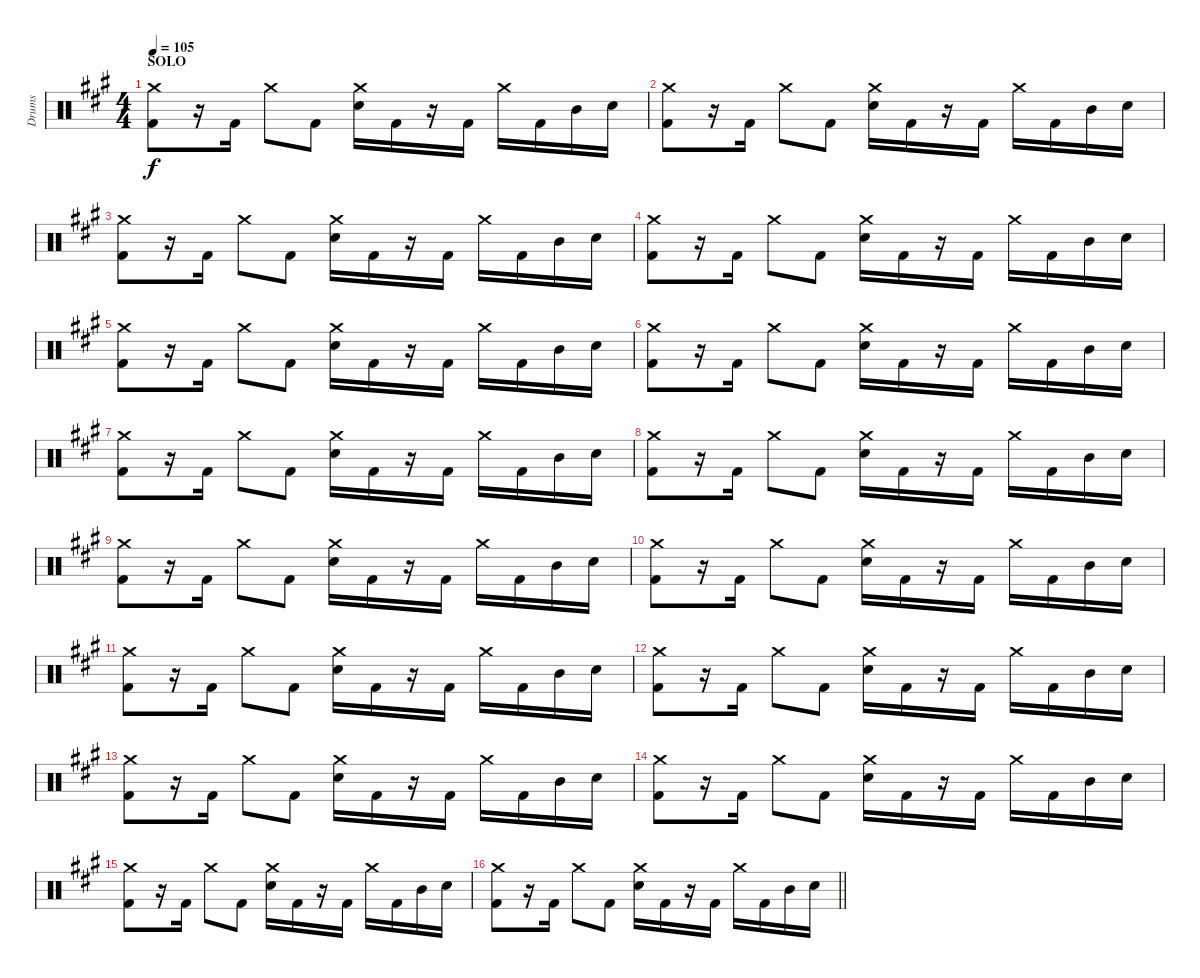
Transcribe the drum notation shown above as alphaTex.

\track ("Drums" "Drums") {instrument percussion}
\staff {score}
\articulation defaults
\ts (4 4)
\section ("" "SOLO")
\tempo 105
\clef neutral
\ks f#minor
("Crash medium (hit)" "Kick (hit) 2").8{dy f} r.16 "Kick (hit) 2".16 "Crash medium (hit)".8 "Kick (hit) 2".8 ("Electric Snare (hit)" "Crash medium (hit)").16 "Kick (hit) 2".16 r.16 "Kick (hit) 2".16 "Crash medium (hit)".16 "Kick (hit) 2".16 "Mid Tom (hit)".16 "Electric Snare (hit)".16 |
("Crash medium (hit)" "Kick (hit) 2").8 r.16 "Kick (hit) 2".16 "Crash medium (hit)".8 "Kick (hit) 2".8 ("Electric Snare (hit)" "Crash medium (hit)").16 "Kick (hit) 2".16 r.16 "Kick (hit) 2".16 "Crash medium (hit)".16 "Kick (hit) 2".16 "Mid Tom (hit)".16 "Electric Snare (hit)".16 |
("Crash medium (hit)" "Kick (hit) 2").8 r.16 "Kick (hit) 2".16 "Crash medium (hit)".8 "Kick (hit) 2".8 ("Electric Snare (hit)" "Crash medium (hit)").16 "Kick (hit) 2".16 r.16 "Kick (hit) 2".16 "Crash medium (hit)".16 "Kick (hit) 2".16 "Mid Tom (hit)".16 "Electric Snare (hit)".16 |
("Crash medium (hit)" "Kick (hit) 2").8 r.16 "Kick (hit) 2".16 "Crash medium (hit)".8 "Kick (hit) 2".8 ("Electric Snare (hit)" "Crash medium (hit)").16 "Kick (hit) 2".16 r.16 "Kick (hit) 2".16 "Crash medium (hit)".16 "Kick (hit) 2".16 "Mid Tom (hit)".16 "Electric Snare (hit)".16 |
("Crash medium (hit)" "Kick (hit) 2").8 r.16 "Kick (hit) 2".16 "Crash medium (hit)".8 "Kick (hit) 2".8 ("Electric Snare (hit)" "Crash medium (hit)").16 "Kick (hit) 2".16 r.16 "Kick (hit) 2".16 "Crash medium (hit)".16 "Kick (hit) 2".16 "Mid Tom (hit)".16 "Electric Snare (hit)".16 |
("Crash medium (hit)" "Kick (hit) 2").8 r.16 "Kick (hit) 2".16 "Crash medium (hit)".8 "Kick (hit) 2".8 ("Electric Snare (hit)" "Crash medium (hit)").16 "Kick (hit) 2".16 r.16 "Kick (hit) 2".16 "Crash medium (hit)".16 "Kick (hit) 2".16 "Mid Tom (hit)".16 "Electric Snare (hit)".16 |
("Crash medium (hit)" "Kick (hit) 2").8 r.16 "Kick (hit) 2".16 "Crash medium (hit)".8 "Kick (hit) 2".8 ("Electric Snare (hit)" "Crash medium (hit)").16 "Kick (hit) 2".16 r.16 "Kick (hit) 2".16 "Crash medium (hit)".16 "Kick (hit) 2".16 "Mid Tom (hit)".16 "Electric Snare (hit)".16 |
("Crash medium (hit)" "Kick (hit) 2").8 r.16 "Kick (hit) 2".16 "Crash medium (hit)".8 "Kick (hit) 2".8 ("Electric Snare (hit)" "Crash medium (hit)").16 "Kick (hit) 2".16 r.16 "Kick (hit) 2".16 "Crash medium (hit)".16 "Kick (hit) 2".16 "Mid Tom (hit)".16 "Electric Snare (hit)".16 |
("Crash medium (hit)" "Kick (hit) 2").8 r.16 "Kick (hit) 2".16 "Crash medium (hit)".8 "Kick (hit) 2".8 ("Electric Snare (hit)" "Crash medium (hit)").16 "Kick (hit) 2".16 r.16 "Kick (hit) 2".16 "Crash medium (hit)".16 "Kick (hit) 2".16 "Mid Tom (hit)".16 "Electric Snare (hit)".16 |
("Crash medium (hit)" "Kick (hit) 2").8 r.16 "Kick (hit) 2".16 "Crash medium (hit)".8 "Kick (hit) 2".8 ("Electric Snare (hit)" "Crash medium (hit)").16 "Kick (hit) 2".16 r.16 "Kick (hit) 2".16 "Crash medium (hit)".16 "Kick (hit) 2".16 "Mid Tom (hit)".16 "Electric Snare (hit)".16 |
("Crash medium (hit)" "Kick (hit) 2").8 r.16 "Kick (hit) 2".16 "Crash medium (hit)".8 "Kick (hit) 2".8 ("Electric Snare (hit)" "Crash medium (hit)").16 "Kick (hit) 2".16 r.16 "Kick (hit) 2".16 "Crash medium (hit)".16 "Kick (hit) 2".16 "Mid Tom (hit)".16 "Electric Snare (hit)".16 |
("Crash medium (hit)" "Kick (hit) 2").8 r.16 "Kick (hit) 2".16 "Crash medium (hit)".8 "Kick (hit) 2".8 ("Electric Snare (hit)" "Crash medium (hit)").16 "Kick (hit) 2".16 r.16 "Kick (hit) 2".16 "Crash medium (hit)".16 "Kick (hit) 2".16 "Mid Tom (hit)".16 "Electric Snare (hit)".16 |
("Crash medium (hit)" "Kick (hit) 2").8 r.16 "Kick (hit) 2".16 "Crash medium (hit)".8 "Kick (hit) 2".8 ("Electric Snare (hit)" "Crash medium (hit)").16 "Kick (hit) 2".16 r.16 "Kick (hit) 2".16 "Crash medium (hit)".16 "Kick (hit) 2".16 "Mid Tom (hit)".16 "Electric Snare (hit)".16 |
("Crash medium (hit)" "Kick (hit) 2").8 r.16 "Kick (hit) 2".16 "Crash medium (hit)".8 "Kick (hit) 2".8 ("Electric Snare (hit)" "Crash medium (hit)").16 "Kick (hit) 2".16 r.16 "Kick (hit) 2".16 "Crash medium (hit)".16 "Kick (hit) 2".16 "Mid Tom (hit)".16 "Electric Snare (hit)".16 |
("Crash medium (hit)" "Kick (hit) 2").8 r.16 "Kick (hit) 2".16 "Crash medium (hit)".8 "Kick (hit) 2".8 ("Electric Snare (hit)" "Crash medium (hit)").16 "Kick (hit) 2".16 r.16 "Kick (hit) 2".16 "Crash medium (hit)".16 "Kick (hit) 2".16 "Mid Tom (hit)".16 "Electric Snare (hit)".16 |
\barLineRight lightlight
("Crash medium (hit)" "Kick (hit) 2").8 r.16 "Kick (hit) 2".16 "Crash medium (hit)".8 "Kick (hit) 2".8 ("Electric Snare (hit)" "Crash medium (hit)").16 "Kick (hit) 2".16 r.16 "Kick (hit) 2".16 "Crash medium (hit)".16 "Kick (hit) 2".16 "Mid Tom (hit)".16 "Electric Snare (hit)".16
